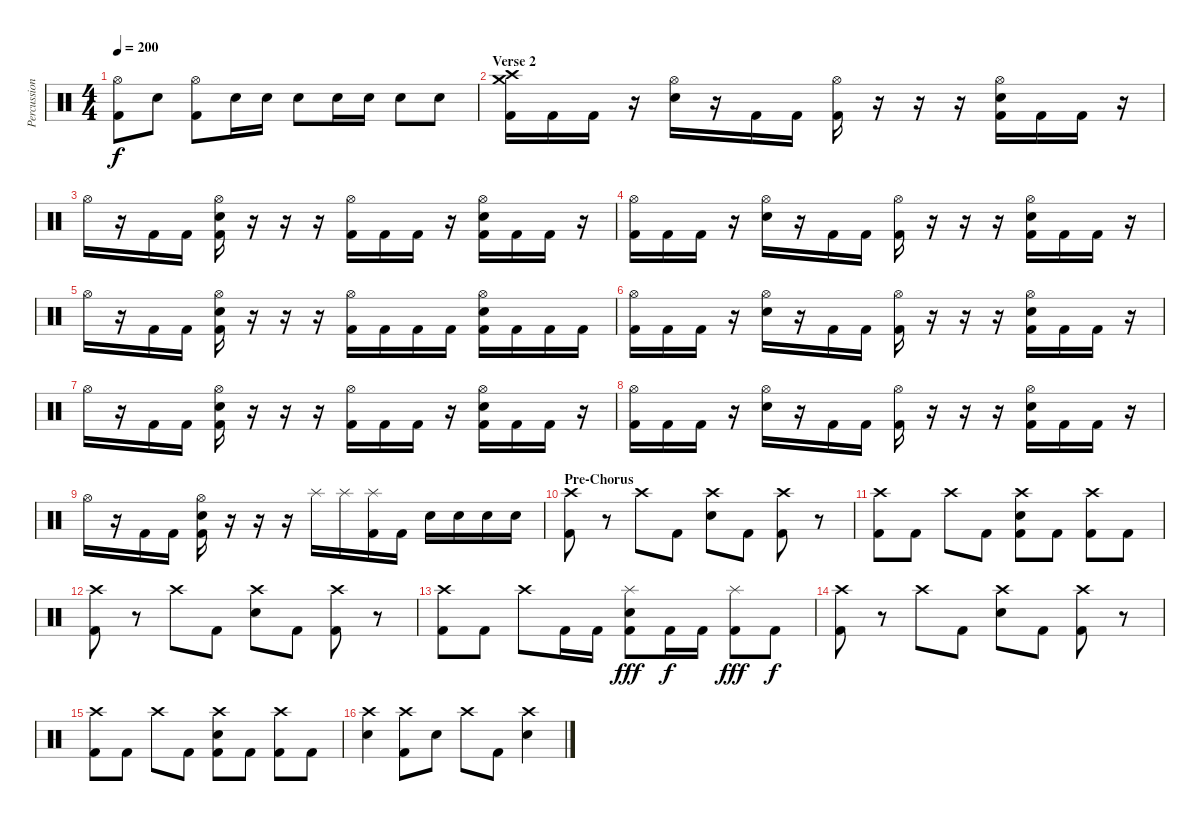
\track ("Percussions" "Percussion") {instrument percussion}
\staff {score}
\articulation defaults
\ts (4 4)
\tempo 200
\clef neutral
\ks c
("Hi-Hat (open)" "Kick (hit) 2").8{dy f} "Electric Snare (hit)".8 ("Hi-Hat (open)" "Kick (hit) 2").8 "Electric Snare (hit)".16 "Electric Snare (hit)".16 "Electric Snare (hit)".8 "Electric Snare (hit)".16 "Electric Snare (hit)".16 "Electric Snare (hit)".8 "Electric Snare (hit)".8 |
\section ("" "Verse 2")
("Crash medium (hit)" "Crash high (hit)" "Kick (hit) 2").16 "Kick (hit) 2".16 "Kick (hit) 2".16 r.16 ("Hi-Hat (open)" "Electric Snare (hit)").16 r.16 "Kick (hit) 2".16 "Kick (hit) 2".16 ("Hi-Hat (open)" "Kick (hit) 2").16 r.16 r.16 r.16 ("Hi-Hat (open)" "Electric Snare (hit)" "Kick (hit) 2").16 "Kick (hit) 2".16 "Kick (hit) 2".16 r.16 |
"Hi-Hat (open)".16 r.16 "Kick (hit) 2".16 "Kick (hit) 2".16 ("Hi-Hat (open)" "Electric Snare (hit)" "Kick (hit) 2").16 r.16 r.16 r.16 ("Hi-Hat (open)" "Kick (hit) 2").16 "Kick (hit) 2".16 "Kick (hit) 2".16 r.16 ("Hi-Hat (open)" "Electric Snare (hit)" "Kick (hit) 2").16 "Kick (hit) 2".16 "Kick (hit) 2".16 r.16 |
("Hi-Hat (open)" "Kick (hit) 2").16 "Kick (hit) 2".16 "Kick (hit) 2".16 r.16 ("Hi-Hat (open)" "Electric Snare (hit)").16 r.16 "Kick (hit) 2".16 "Kick (hit) 2".16 ("Hi-Hat (open)" "Kick (hit) 2").16 r.16 r.16 r.16 ("Hi-Hat (open)" "Electric Snare (hit)" "Kick (hit) 2").16 "Kick (hit) 2".16 "Kick (hit) 2".16 r.16 |
"Hi-Hat (open)".16 r.16 "Kick (hit) 2".16 "Kick (hit) 2".16 ("Hi-Hat (open)" "Electric Snare (hit)" "Kick (hit) 2").16 r.16 r.16 r.16 ("Hi-Hat (open)" "Kick (hit) 2").16 "Kick (hit) 2".16 "Kick (hit) 2".16 "Kick (hit) 2".16 ("Hi-Hat (open)" "Electric Snare (hit)" "Kick (hit) 2").16 "Kick (hit) 2".16 "Kick (hit) 2".16 "Kick (hit) 2".16 |
("Hi-Hat (open)" "Kick (hit) 2").16 "Kick (hit) 2".16 "Kick (hit) 2".16 r.16 ("Hi-Hat (open)" "Electric Snare (hit)").16 r.16 "Kick (hit) 2".16 "Kick (hit) 2".16 ("Hi-Hat (open)" "Kick (hit) 2").16 r.16 r.16 r.16 ("Hi-Hat (open)" "Electric Snare (hit)" "Kick (hit) 2").16 "Kick (hit) 2".16 "Kick (hit) 2".16 r.16 |
"Hi-Hat (open)".16 r.16 "Kick (hit) 2".16 "Kick (hit) 2".16 ("Hi-Hat (open)" "Electric Snare (hit)" "Kick (hit) 2").16 r.16 r.16 r.16 ("Hi-Hat (open)" "Kick (hit) 2").16 "Kick (hit) 2".16 "Kick (hit) 2".16 r.16 ("Hi-Hat (open)" "Electric Snare (hit)" "Kick (hit) 2").16 "Kick (hit) 2".16 "Kick (hit) 2".16 r.16 |
("Hi-Hat (open)" "Kick (hit) 2").16 "Kick (hit) 2".16 "Kick (hit) 2".16 r.16 ("Hi-Hat (open)" "Electric Snare (hit)").16 r.16 "Kick (hit) 2".16 "Kick (hit) 2".16 ("Hi-Hat (open)" "Kick (hit) 2").16 r.16 r.16 r.16 ("Hi-Hat (open)" "Electric Snare (hit)" "Kick (hit) 2").16 "Kick (hit) 2".16 "Kick (hit) 2".16 r.16 |
"Hi-Hat (open)".16 r.16 "Kick (hit) 2".16 "Kick (hit) 2".16 ("Hi-Hat (open)" "Electric Snare (hit)" "Kick (hit) 2").16 r.16 r.16 r.16 "Splash (hit)".16 "Splash (hit)".16 ("Splash (hit)" "Kick (hit) 2").16 "Kick (hit) 2".16 "Electric Snare (hit)".16 "Electric Snare (hit)".16 "Electric Snare (hit)".16 "Electric Snare (hit)".16 |
\section ("" "Pre-Chorus")
("Crash high (hit)" "Kick (hit) 2").8 r.8 "Crash high (hit)".8 "Kick (hit) 2".8 ("Crash high (hit)" "Electric Snare (hit)").8 "Kick (hit) 2".8 ("Crash high (hit)" "Kick (hit) 2").8 r.8 |
("Crash high (hit)" "Kick (hit) 2").8 "Kick (hit) 2".8 "Crash high (hit)".8 "Kick (hit) 2".8 ("Crash high (hit)" "Electric Snare (hit)" "Kick (hit) 2").8 "Kick (hit) 2".8 ("Crash high (hit)" "Kick (hit) 2").8 "Kick (hit) 2".8 |
("Crash high (hit)" "Kick (hit) 2").8 r.8 "Crash high (hit)".8 "Kick (hit) 2".8 ("Crash high (hit)" "Electric Snare (hit)").8 "Kick (hit) 2".8 ("Crash high (hit)" "Kick (hit) 2").8 r.8 |
("Crash high (hit)" "Kick (hit) 2").8 "Kick (hit) 2".8 "Crash high (hit)".8 "Kick (hit) 2".16 "Kick (hit) 2".16 ("Splash (hit)" "Electric Snare (hit)" "Kick (hit) 2").8{dy fff} "Kick (hit) 2".16{dy f} "Kick (hit) 2".16 ("Splash (hit)" "Kick (hit) 2").8{dy fff} "Kick (hit) 2".8{dy f} |
("Crash high (hit)" "Kick (hit) 2").8 r.8 "Crash high (hit)".8 "Kick (hit) 2".8 ("Crash high (hit)" "Electric Snare (hit)").8 "Kick (hit) 2".8 ("Crash high (hit)" "Kick (hit) 2").8 r.8 |
("Crash high (hit)" "Kick (hit) 2").8 "Kick (hit) 2".8 "Crash high (hit)".8 "Kick (hit) 2".8 ("Crash high (hit)" "Electric Snare (hit)" "Kick (hit) 2").8 "Kick (hit) 2".8 ("Crash high (hit)" "Kick (hit) 2").8 "Kick (hit) 2".8 |
("Crash high (hit)" "Electric Snare (hit)").4 ("Crash high (hit)" "Kick (hit) 2").8 "Electric Snare (hit)".8 "Crash high (hit)".8 "Kick (hit) 2".8 ("Crash high (hit)" "Electric Snare (hit)").4
